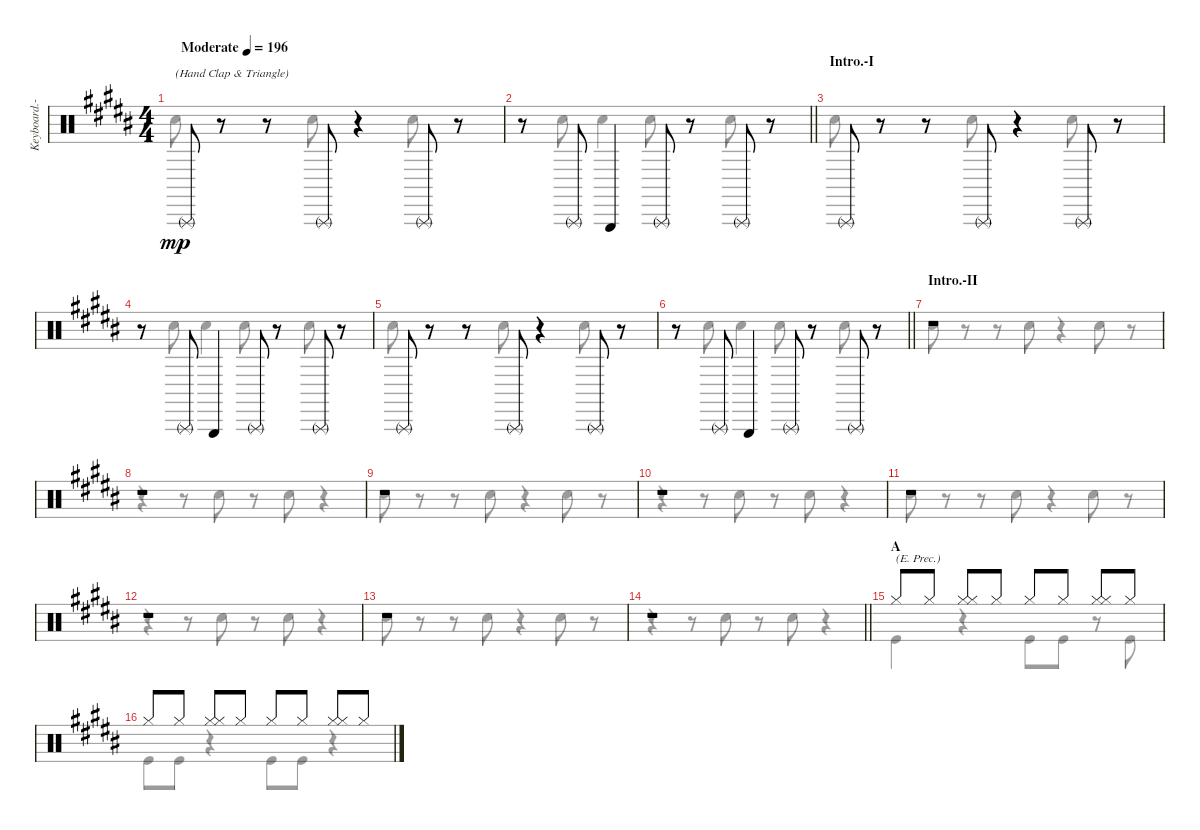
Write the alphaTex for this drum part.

\track ("Keyboard.-III" "Keyboard.-") {instrument percussion}
\staff {score}
\articulation defaults
\voice
\ts (4 4)
\tempo (196 "Moderate")
\clef neutral
\ks b "Triangle (rnute)".8{txt "(Hand Clap & Triangle)" dy mp}
r.8 r.8 "Triangle (rnute)".8 r.4 "Triangle (rnute)".8 r.8 |
\barLineRight lightlight
r.8 "Triangle (rnute)".8 "Triangle (hit)".4 "Triangle (rnute)".8 r.8 "Triangle (rnute)".8 r.8 |
\section ("" "Intro.-I")
"Triangle (rnute)".8 r.8 r.8 "Triangle (rnute)".8 r.4 "Triangle (rnute)".8 r.8 |
r.8 "Triangle (rnute)".8 "Triangle (hit)".4 "Triangle (rnute)".8 r.8 "Triangle (rnute)".8 r.8 |
"Triangle (rnute)".8 r.8 r.8 "Triangle (rnute)".8 r.4 "Triangle (rnute)".8 r.8 |
\barLineRight lightlight
r.8 "Triangle (rnute)".8 "Triangle (hit)".4 "Triangle (rnute)".8 r.8 "Triangle (rnute)".8 r.8 |
\section ("" "Intro.-II")
r.1 |
r.1 |
r.1 |
r.1 |
r.1 |
r.1 |
r.1 |
\barLineRight lightlight
r.1 |
\section ("" "A")
"Hi-Hat (closed)".8{txt "(E. Prec.)"} "Hi-Hat (closed)".8 ("Hi-Hat (closed)" "Hi-Hat (closed)").8 "Hi-Hat (closed)".8 "Hi-Hat (closed)".8 "Hi-Hat (closed)".8 ("Hi-Hat (closed)" "Hi-Hat (closed)").8 "Hi-Hat (closed)".8 |
"Hi-Hat (closed)".8 "Hi-Hat (closed)".8 ("Hi-Hat (closed)" "Hi-Hat (closed)").8 "Hi-Hat (closed)".8 "Hi-Hat (closed)".8 "Hi-Hat (closed)".8 ("Hi-Hat (closed)" "Hi-Hat (closed)").8 "Hi-Hat (closed)".8
\voice
\clef neutral
\ottava regular
\simile none
\ks b "Hand Clap (hit)".8{dy mp}
r.8 r.8 "Hand Clap (hit)".8 r.4 "Hand Clap (hit)".8 r.8 |
\barLineRight lightlight
r.8 "Hand Clap (hit)".8 "Hand Clap (hit)".4 "Hand Clap (hit)".8 r.8 "Hand Clap (hit)".8 r.8 |
"Hand Clap (hit)".8 r.8 r.8 "Hand Clap (hit)".8 r.4 "Hand Clap (hit)".8 r.8 |
r.8 "Hand Clap (hit)".8 "Hand Clap (hit)".4 "Hand Clap (hit)".8 r.8 "Hand Clap (hit)".8 r.8 |
"Hand Clap (hit)".8 r.8 r.8 "Hand Clap (hit)".8 r.4 "Hand Clap (hit)".8 r.8 |
\barLineRight lightlight
r.8 "Hand Clap (hit)".8 "Hand Clap (hit)".4 "Hand Clap (hit)".8 r.8 "Hand Clap (hit)".8 r.8 |
"Hand Clap (hit)".8 r.8 r.8 "Hand Clap (hit)".8 r.4 "Hand Clap (hit)".8 r.8 |
r.4 r.8 "Hand Clap (hit)".8 r.8 "Hand Clap (hit)".8 r.4 |
"Hand Clap (hit)".8 r.8 r.8 "Hand Clap (hit)".8 r.4 "Hand Clap (hit)".8 r.8 |
r.4 r.8 "Hand Clap (hit)".8 r.8 "Hand Clap (hit)".8 r.4 |
"Hand Clap (hit)".8 r.8 r.8 "Hand Clap (hit)".8 r.4 "Hand Clap (hit)".8 r.8 |
r.4 r.8 "Hand Clap (hit)".8 r.8 "Hand Clap (hit)".8 r.4 |
"Hand Clap (hit)".8 r.8 r.8 "Hand Clap (hit)".8 r.4 "Hand Clap (hit)".8 r.8 |
\barLineRight lightlight
r.4 r.8 "Hand Clap (hit)".8 r.8 "Hand Clap (hit)".8 r.4 |
"Kick (hit)".4 r.4 "Kick (hit)".8 "Kick (hit)".8 r.8 "Kick (hit)".8 |
"Kick (hit)".8 "Kick (hit)".8 r.4 "Kick (hit)".8 "Kick (hit)".8 r.4
